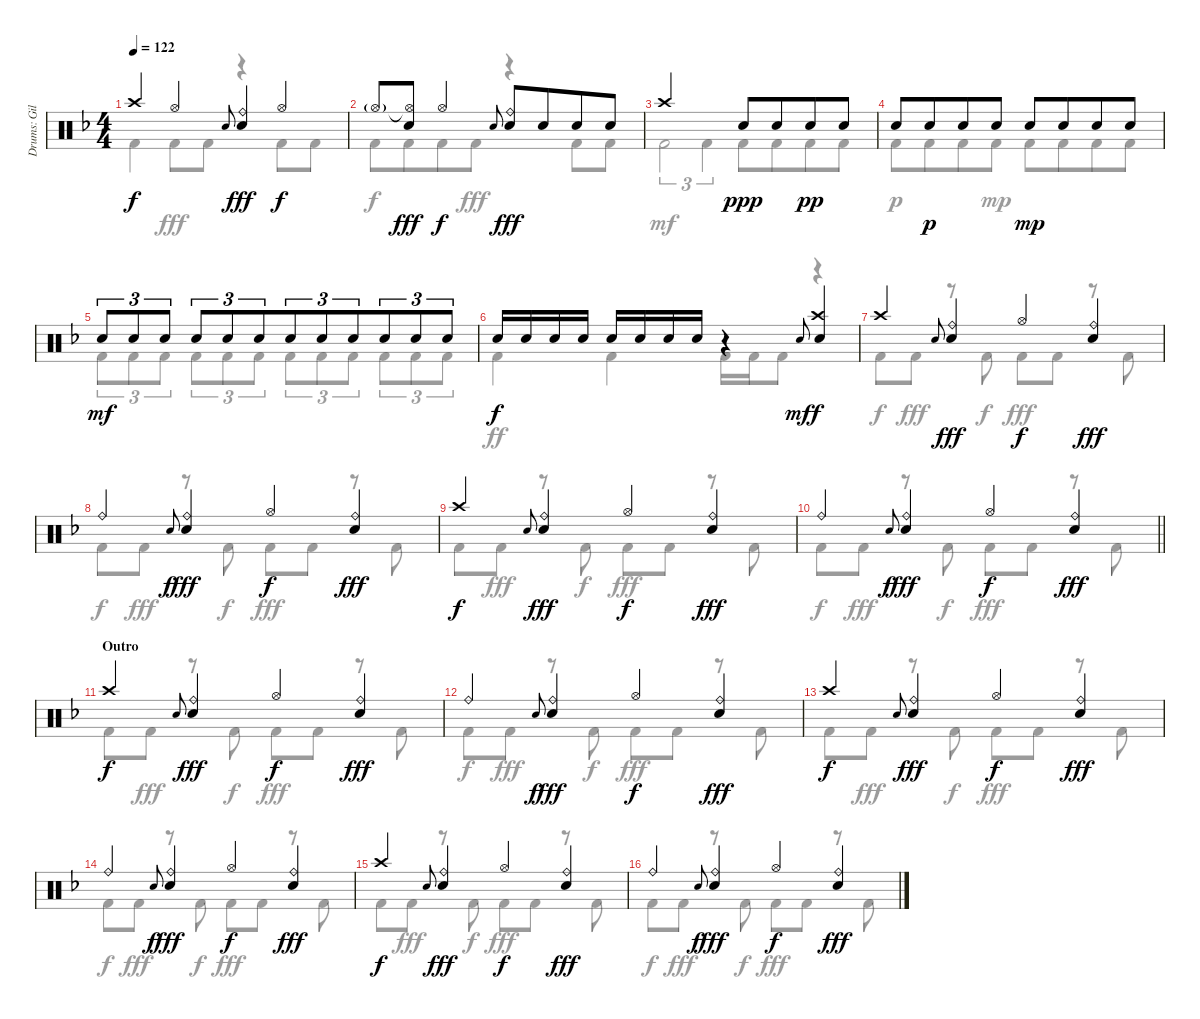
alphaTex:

\track ("Drums: Gil" "Drums: Gil") {instrument percussion}
\staff {score}
\articulation defaults
\voice
\ts (4 4)
\tempo 122
\clef neutral
\ks f "Crash high (hit)".4{dy f} "Hi-Hat (open)".4 "Electric Snare (hit)".8{gr onbeat}
("Ride (bell)" "Snare (hit) 2").4{dy fff} "Hi-Hat (open)".4{dy f} |
"Hi-Hat (open)"{g}.8 ("Hi-Hat (open)"{t} "Snare (hit) 2").8{dy fff} "Hi-Hat (open)".4{dy f} "Electric Snare (hit)".8{gr onbeat} ("Ride (bell)" "Snare (hit) 2").8{dy fff} "Snare (hit) 2".8{beam merge} "Snare (hit) 2".8 "Snare (hit) 2".8 |
"Crash high (hit)".2 "Snare (hit) 2".8{dy ppp} "Snare (hit) 2".8{beam merge} "Snare (hit) 2".8{dy pp} "Snare (hit) 2".8 |
"Snare (hit) 2".8 "Snare (hit) 2".8{dy p beam merge} "Snare (hit) 2".8 "Snare (hit) 2".8 "Snare (hit) 2".8{dy mp} "Snare (hit) 2".8{beam merge} "Snare (hit) 2".8 "Snare (hit) 2".8 |
"Snare (hit) 2".8{tu (3 2) dy mf} "Snare (hit) 2".8{tu (3 2) beam merge} "Snare (hit) 2".8{tu (3 2)} "Snare (hit) 2".8{tu (3 2)} "Snare (hit) 2".8{tu (3 2)} "Snare (hit) 2".8{tu (3 2) beam merge} "Snare (hit) 2".8{tu (3 2)} "Snare (hit) 2".8{tu (3 2)} "Snare (hit) 2".8{tu (3 2) beam merge} "Snare (hit) 2".8{tu (3 2)} "Snare (hit) 2".8{tu (3 2)} "Snare (hit) 2".8{tu (3 2)} |
"Snare (hit) 2".16{dy f} "Snare (hit) 2".16 "Snare (hit) 2".16 "Snare (hit) 2".16 "Snare (hit) 2".16 "Snare (hit) 2".16 "Snare (hit) 2".16 "Snare (hit) 2".16 r.4 "Electric Snare (hit)".8{gr onbeat dy mf} ("Crash high (hit)" "Snare (hit) 2").4{dy f} |
"Crash high (hit)".4 "Electric Snare (hit)".8{gr onbeat} ("Ride (bell)" "Snare (hit) 2").4{dy fff} "Hi-Hat (open)".4{dy f} ("Ride (bell)" "Snare (hit) 2").4{dy fff} |
"Ride (bell)".4 "Electric Snare (hit)".8{gr onbeat dy f} ("Ride (bell)" "Snare (hit) 2").4{dy fff} "Hi-Hat (open)".4{dy f} ("Ride (bell)" "Snare (hit) 2").4{dy fff} |
"Crash high (hit)".4{dy f} "Electric Snare (hit)".8{gr onbeat} ("Ride (bell)" "Snare (hit) 2").4{dy fff} "Hi-Hat (open)".4{dy f} ("Ride (bell)" "Snare (hit) 2").4{dy fff} |
\barLineRight lightlight "Ride (bell)".4 "Electric Snare (hit)".8{gr onbeat dy f}
("Ride (bell)" "Snare (hit) 2").4{dy fff} "Hi-Hat (open)".4{dy f} ("Ride (bell)" "Snare (hit) 2").4{dy fff} |
\section ("" "Outro")
"Crash high (hit)".4{dy f} "Electric Snare (hit)".8{gr onbeat} ("Ride (bell)" "Snare (hit) 2").4{dy fff} "Hi-Hat (open)".4{dy f} ("Ride (bell)" "Snare (hit) 2").4{dy fff} |
"Ride (bell)".4 "Electric Snare (hit)".8{gr onbeat dy f} ("Ride (bell)" "Snare (hit) 2").4{dy fff} "Hi-Hat (open)".4{dy f} ("Ride (bell)" "Snare (hit) 2").4{dy fff} |
"Crash high (hit)".4{dy f} "Electric Snare (hit)".8{gr onbeat} ("Ride (bell)" "Snare (hit) 2").4{dy fff} "Hi-Hat (open)".4{dy f} ("Ride (bell)" "Snare (hit) 2").4{dy fff} |
"Ride (bell)".4 "Electric Snare (hit)".8{gr onbeat dy f} ("Ride (bell)" "Snare (hit) 2").4{dy fff} "Hi-Hat (open)".4{dy f} ("Ride (bell)" "Snare (hit) 2").4{dy fff} |
"Crash high (hit)".4{dy f} "Electric Snare (hit)".8{gr onbeat} ("Ride (bell)" "Snare (hit) 2").4{dy fff} "Hi-Hat (open)".4{dy f} ("Ride (bell)" "Snare (hit) 2").4{dy fff} |
"Ride (bell)".4 "Electric Snare (hit)".8{gr onbeat dy f} ("Ride (bell)" "Snare (hit) 2").4{dy fff} "Hi-Hat (open)".4{dy f} ("Ride (bell)" "Snare (hit) 2").4{dy fff}
\voice
\clef neutral
\ottava regular
\simile none
\ks f "Kick (hit) 2".4{dy f} "Kick (hit) 2".8{dy fff} "Kick (hit) 2".8
r.4 "Kick (hit) 2".8 "Kick (hit) 2".8 |
"Kick (hit) 2".8{dy f} "Kick (hit) 2".8{dy fff beam merge} "Kick (hit) 2".8{dy f} "Kick (hit) 2".8{dy fff} r.4 "Kick (hit) 2".8 "Kick (hit) 2".8 |
"Kick (hit) 2".2{tu (3 2) dy mf} "Kick (hit) 2".4{tu (3 2) beam merge} "Kick (hit) 2".8{dy ppp} "Kick (hit) 2".8{beam merge} "Kick (hit) 2".8{dy pp} "Kick (hit) 2".8 |
"Kick (hit) 2".8{dy p} "Kick (hit) 2".8{beam merge} "Kick (hit) 2".8 "Kick (hit) 2".8{dy mp beam split} "Kick (hit) 2".8 "Kick (hit) 2".8{beam merge} "Kick (hit) 2".8 "Kick (hit) 2".8 |
"Kick (hit) 2".8{tu (3 2) dy mf} "Kick (hit) 2".8{tu (3 2) beam merge} "Kick (hit) 2".8{tu (3 2)} "Kick (hit) 2".8{tu (3 2)} "Kick (hit) 2".8{tu (3 2)} "Kick (hit) 2".8{tu (3 2)} "Kick (hit) 2".8{tu (3 2)} "Kick (hit) 2".8{tu (3 2) beam merge} "Kick (hit) 2".8{tu (3 2)} "Kick (hit) 2".8{tu (3 2)} "Kick (hit) 2".8{tu (3 2)} "Kick (hit) 2".8{tu (3 2)} |
"Kick (hit) 2".4{dy ff} "Kick (hit) 2".4 "Kick (hit) 2".16 "Kick (hit) 2".16 "Kick (hit) 2".8 r.4 |
"Kick (hit) 2".8{dy f} "Kick (hit) 2".8{dy fff} r.8 "Kick (hit) 2".8{dy f} "Kick (hit) 2".8{dy fff} "Kick (hit) 2".8 r.8 "Kick (hit) 2".8 |
"Kick (hit) 2".8{dy f} "Kick (hit) 2".8{dy fff} r.8 "Kick (hit) 2".8{dy f} "Kick (hit) 2".8{dy fff} "Kick (hit) 2".8 r.8 "Kick (hit) 2".8 |
"Kick (hit) 2".8{dy f} "Kick (hit) 2".8{dy fff} r.8 "Kick (hit) 2".8{dy f} "Kick (hit) 2".8{dy fff} "Kick (hit) 2".8 r.8 "Kick (hit) 2".8 |
\barLineRight lightlight "Kick (hit) 2".8{dy f} "Kick (hit) 2".8{dy fff}
r.8 "Kick (hit) 2".8{dy f} "Kick (hit) 2".8{dy fff} "Kick (hit) 2".8 r.8 "Kick (hit) 2".8 |
"Kick (hit) 2".8{dy f} "Kick (hit) 2".8{dy fff} r.8 "Kick (hit) 2".8{dy f} "Kick (hit) 2".8{dy fff} "Kick (hit) 2".8 r.8 "Kick (hit) 2".8 |
"Kick (hit) 2".8{dy f} "Kick (hit) 2".8{dy fff} r.8 "Kick (hit) 2".8{dy f} "Kick (hit) 2".8{dy fff} "Kick (hit) 2".8 r.8 "Kick (hit) 2".8 |
"Kick (hit) 2".8{dy f} "Kick (hit) 2".8{dy fff} r.8 "Kick (hit) 2".8{dy f} "Kick (hit) 2".8{dy fff} "Kick (hit) 2".8 r.8 "Kick (hit) 2".8 |
"Kick (hit) 2".8{dy f} "Kick (hit) 2".8{dy fff} r.8 "Kick (hit) 2".8{dy f} "Kick (hit) 2".8{dy fff} "Kick (hit) 2".8 r.8 "Kick (hit) 2".8 |
"Kick (hit) 2".8{dy f} "Kick (hit) 2".8{dy fff} r.8 "Kick (hit) 2".8{dy f} "Kick (hit) 2".8{dy fff} "Kick (hit) 2".8 r.8 "Kick (hit) 2".8 |
"Kick (hit) 2".8{dy f} "Kick (hit) 2".8{dy fff} r.8 "Kick (hit) 2".8{dy f} "Kick (hit) 2".8{dy fff} "Kick (hit) 2".8 r.8 "Kick (hit) 2".8
